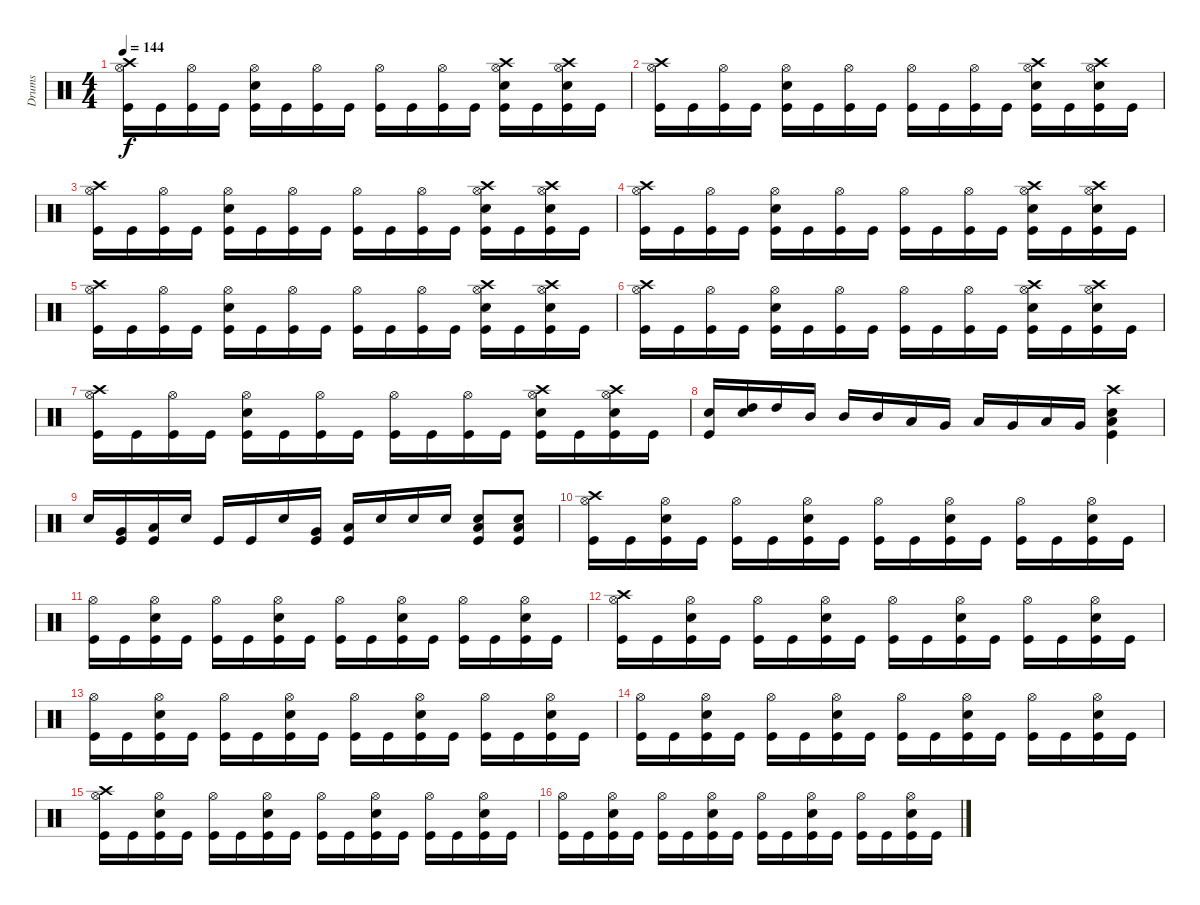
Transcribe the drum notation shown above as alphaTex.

\track ("Drums" "Drums") {instrument percussion}
\staff {score}
\articulation defaults
\ts (4 4)
\tempo 144
\clef neutral
\ks c
("Crash high (hit)" "Hi-Hat (open)" "Kick (hit)").16{dy f} "Kick (hit)".16 ("Kick (hit)" "Hi-Hat (open)").16 "Kick (hit)".16 ("Electric Snare (hit)" "Kick (hit)" "Hi-Hat (open)").16 "Kick (hit)".16 ("Kick (hit)" "Hi-Hat (open)").16 "Kick (hit)".16 ("Hi-Hat (open)" "Kick (hit)").16 "Kick (hit)".16 ("Kick (hit)" "Hi-Hat (open)").16 "Kick (hit)".16 ("Crash high (hit)" "Electric Snare (hit)" "Kick (hit)" "Hi-Hat (open)").16 "Kick (hit)".16 ("Crash high (hit)" "Electric Snare (hit)" "Kick (hit)" "Hi-Hat (open)").16 "Kick (hit)".16 |
("Crash high (hit)" "Hi-Hat (open)" "Kick (hit)").16 "Kick (hit)".16 ("Kick (hit)" "Hi-Hat (open)").16 "Kick (hit)".16 ("Electric Snare (hit)" "Kick (hit)" "Hi-Hat (open)").16 "Kick (hit)".16 ("Kick (hit)" "Hi-Hat (open)").16 "Kick (hit)".16 ("Hi-Hat (open)" "Kick (hit)").16 "Kick (hit)".16 ("Kick (hit)" "Hi-Hat (open)").16 "Kick (hit)".16 ("Crash high (hit)" "Electric Snare (hit)" "Kick (hit)" "Hi-Hat (open)").16 "Kick (hit)".16 ("Crash high (hit)" "Electric Snare (hit)" "Kick (hit)" "Hi-Hat (open)").16 "Kick (hit)".16 |
("Crash high (hit)" "Hi-Hat (open)" "Kick (hit)").16 "Kick (hit)".16 ("Kick (hit)" "Hi-Hat (open)").16 "Kick (hit)".16 ("Electric Snare (hit)" "Kick (hit)" "Hi-Hat (open)").16 "Kick (hit)".16 ("Kick (hit)" "Hi-Hat (open)").16 "Kick (hit)".16 ("Hi-Hat (open)" "Kick (hit)").16 "Kick (hit)".16 ("Kick (hit)" "Hi-Hat (open)").16 "Kick (hit)".16 ("Crash high (hit)" "Electric Snare (hit)" "Kick (hit)" "Hi-Hat (open)").16 "Kick (hit)".16 ("Crash high (hit)" "Electric Snare (hit)" "Kick (hit)" "Hi-Hat (open)").16 "Kick (hit)".16 |
("Crash high (hit)" "Hi-Hat (open)" "Kick (hit)").16 "Kick (hit)".16 ("Kick (hit)" "Hi-Hat (open)").16 "Kick (hit)".16 ("Electric Snare (hit)" "Kick (hit)" "Hi-Hat (open)").16 "Kick (hit)".16 ("Kick (hit)" "Hi-Hat (open)").16 "Kick (hit)".16 ("Hi-Hat (open)" "Kick (hit)").16 "Kick (hit)".16 ("Kick (hit)" "Hi-Hat (open)").16 "Kick (hit)".16 ("Crash high (hit)" "Electric Snare (hit)" "Kick (hit)" "Hi-Hat (open)").16 "Kick (hit)".16 ("Crash high (hit)" "Electric Snare (hit)" "Kick (hit)" "Hi-Hat (open)").16 "Kick (hit)".16 |
("Crash high (hit)" "Hi-Hat (open)" "Kick (hit)").16 "Kick (hit)".16 ("Kick (hit)" "Hi-Hat (open)").16 "Kick (hit)".16 ("Electric Snare (hit)" "Kick (hit)" "Hi-Hat (open)").16 "Kick (hit)".16 ("Kick (hit)" "Hi-Hat (open)").16 "Kick (hit)".16 ("Hi-Hat (open)" "Kick (hit)").16 "Kick (hit)".16 ("Kick (hit)" "Hi-Hat (open)").16 "Kick (hit)".16 ("Crash high (hit)" "Electric Snare (hit)" "Kick (hit)" "Hi-Hat (open)").16 "Kick (hit)".16 ("Crash high (hit)" "Electric Snare (hit)" "Kick (hit)" "Hi-Hat (open)").16 "Kick (hit)".16 |
("Crash high (hit)" "Hi-Hat (open)" "Kick (hit)").16 "Kick (hit)".16 ("Kick (hit)" "Hi-Hat (open)").16 "Kick (hit)".16 ("Electric Snare (hit)" "Kick (hit)" "Hi-Hat (open)").16 "Kick (hit)".16 ("Kick (hit)" "Hi-Hat (open)").16 "Kick (hit)".16 ("Hi-Hat (open)" "Kick (hit)").16 "Kick (hit)".16 ("Kick (hit)" "Hi-Hat (open)").16 "Kick (hit)".16 ("Crash high (hit)" "Electric Snare (hit)" "Kick (hit)" "Hi-Hat (open)").16 "Kick (hit)".16 ("Crash high (hit)" "Electric Snare (hit)" "Kick (hit)" "Hi-Hat (open)").16 "Kick (hit)".16 |
("Crash high (hit)" "Hi-Hat (open)" "Kick (hit)").16 "Kick (hit)".16 ("Kick (hit)" "Hi-Hat (open)").16 "Kick (hit)".16 ("Electric Snare (hit)" "Kick (hit)" "Hi-Hat (open)").16 "Kick (hit)".16 ("Kick (hit)" "Hi-Hat (open)").16 "Kick (hit)".16 ("Hi-Hat (open)" "Kick (hit)").16 "Kick (hit)".16 ("Kick (hit)" "Hi-Hat (open)").16 "Kick (hit)".16 ("Crash high (hit)" "Electric Snare (hit)" "Kick (hit)" "Hi-Hat (open)").16 "Kick (hit)".16 ("Crash high (hit)" "Electric Snare (hit)" "Kick (hit)" "Hi-Hat (open)").16 "Kick (hit)".16 |
("Kick (hit)" "Snare (hit) 2").16 ("High Tom (hit)" "Snare (hit) 2").16 "High Tom (hit)".16 "Mid Tom (hit)".16 "Mid Tom (hit)".16 "Mid Tom (hit)".16 "Low Tom (hit)".16 "Very Low Tom (hit)".16 "Low Floor Tom (hit)".16 "Very Low Tom (hit)".16 "Low Tom (hit)".16 "Very Low Tom (hit)".16 ("Crash high (hit)" "Low Floor Tom (hit)" "Snare (hit) 2" "Kick (hit)").4 |
"Snare (hit) 2".16 ("Very Low Tom (hit)" "Kick (hit)").16 ("Low Floor Tom (hit)" "Kick (hit)").16 "Snare (hit) 2".16 "Kick (hit)".16 "Kick (hit)".16 "Snare (hit) 2".16 ("Very Low Tom (hit)" "Kick (hit)").16 ("Low Floor Tom (hit)" "Kick (hit)").16 "Snare (hit) 2".16 "Snare (hit) 2".16 "Snare (hit) 2".16 ("Kick (hit)" "Low Floor Tom (hit)" "Snare (hit) 2").8 ("Kick (hit)" "Low Floor Tom (hit)" "Snare (hit) 2").8 |
("Hi-Hat (open)" "Crash high (hit)" "Kick (hit)").16 "Kick (hit)".16 ("Kick (hit)" "Hi-Hat (open)" "Electric Snare (hit)").16 "Kick (hit)".16 ("Kick (hit)" "Hi-Hat (open)").16 "Kick (hit)".16 ("Kick (hit)" "Hi-Hat (open)" "Electric Snare (hit)").16 "Kick (hit)".16 ("Hi-Hat (open)" "Kick (hit)").16 "Kick (hit)".16 ("Kick (hit)" "Hi-Hat (open)" "Electric Snare (hit)").16 "Kick (hit)".16 ("Kick (hit)" "Hi-Hat (open)").16 "Kick (hit)".16 ("Kick (hit)" "Hi-Hat (open)" "Electric Snare (hit)").16 "Kick (hit)".16 |
("Hi-Hat (open)" "Kick (hit)").16 "Kick (hit)".16 ("Kick (hit)" "Hi-Hat (open)" "Electric Snare (hit)").16 "Kick (hit)".16 ("Kick (hit)" "Hi-Hat (open)").16 "Kick (hit)".16 ("Kick (hit)" "Hi-Hat (open)" "Electric Snare (hit)").16 "Kick (hit)".16 ("Hi-Hat (open)" "Kick (hit)").16 "Kick (hit)".16 ("Kick (hit)" "Hi-Hat (open)" "Electric Snare (hit)").16 "Kick (hit)".16 ("Kick (hit)" "Hi-Hat (open)").16 "Kick (hit)".16 ("Kick (hit)" "Hi-Hat (open)" "Electric Snare (hit)").16 "Kick (hit)".16 |
("Hi-Hat (open)" "Crash high (hit)" "Kick (hit)").16 "Kick (hit)".16 ("Kick (hit)" "Hi-Hat (open)" "Electric Snare (hit)").16 "Kick (hit)".16 ("Kick (hit)" "Hi-Hat (open)").16 "Kick (hit)".16 ("Kick (hit)" "Hi-Hat (open)" "Electric Snare (hit)").16 "Kick (hit)".16 ("Hi-Hat (open)" "Kick (hit)").16 "Kick (hit)".16 ("Kick (hit)" "Hi-Hat (open)" "Electric Snare (hit)").16 "Kick (hit)".16 ("Kick (hit)" "Hi-Hat (open)").16 "Kick (hit)".16 ("Kick (hit)" "Hi-Hat (open)" "Electric Snare (hit)").16 "Kick (hit)".16 |
("Hi-Hat (open)" "Kick (hit)").16 "Kick (hit)".16 ("Kick (hit)" "Hi-Hat (open)" "Electric Snare (hit)").16 "Kick (hit)".16 ("Kick (hit)" "Hi-Hat (open)").16 "Kick (hit)".16 ("Kick (hit)" "Hi-Hat (open)" "Electric Snare (hit)").16 "Kick (hit)".16 ("Hi-Hat (open)" "Kick (hit)").16 "Kick (hit)".16 ("Kick (hit)" "Hi-Hat (open)" "Electric Snare (hit)").16 "Kick (hit)".16 ("Kick (hit)" "Hi-Hat (open)").16 "Kick (hit)".16 ("Kick (hit)" "Hi-Hat (open)" "Electric Snare (hit)").16 "Kick (hit)".16 |
("Hi-Hat (open)" "Kick (hit)").16 "Kick (hit)".16 ("Kick (hit)" "Hi-Hat (open)" "Electric Snare (hit)").16 "Kick (hit)".16 ("Kick (hit)" "Hi-Hat (open)").16 "Kick (hit)".16 ("Kick (hit)" "Hi-Hat (open)" "Electric Snare (hit)").16 "Kick (hit)".16 ("Hi-Hat (open)" "Kick (hit)").16 "Kick (hit)".16 ("Kick (hit)" "Hi-Hat (open)" "Electric Snare (hit)").16 "Kick (hit)".16 ("Kick (hit)" "Hi-Hat (open)").16 "Kick (hit)".16 ("Kick (hit)" "Hi-Hat (open)" "Electric Snare (hit)").16 "Kick (hit)".16 |
("Hi-Hat (open)" "Crash high (hit)" "Kick (hit)").16 "Kick (hit)".16 ("Kick (hit)" "Hi-Hat (open)" "Electric Snare (hit)").16 "Kick (hit)".16 ("Kick (hit)" "Hi-Hat (open)").16 "Kick (hit)".16 ("Kick (hit)" "Hi-Hat (open)" "Electric Snare (hit)").16 "Kick (hit)".16 ("Hi-Hat (open)" "Kick (hit)").16 "Kick (hit)".16 ("Kick (hit)" "Hi-Hat (open)" "Electric Snare (hit)").16 "Kick (hit)".16 ("Kick (hit)" "Hi-Hat (open)").16 "Kick (hit)".16 ("Kick (hit)" "Hi-Hat (open)" "Electric Snare (hit)").16 "Kick (hit)".16 |
("Hi-Hat (open)" "Kick (hit)").16 "Kick (hit)".16 ("Kick (hit)" "Hi-Hat (open)" "Electric Snare (hit)").16 "Kick (hit)".16 ("Kick (hit)" "Hi-Hat (open)").16 "Kick (hit)".16 ("Kick (hit)" "Hi-Hat (open)" "Electric Snare (hit)").16 "Kick (hit)".16 ("Hi-Hat (open)" "Kick (hit)").16 "Kick (hit)".16 ("Kick (hit)" "Hi-Hat (open)" "Electric Snare (hit)").16 "Kick (hit)".16 ("Kick (hit)" "Hi-Hat (open)").16 "Kick (hit)".16 ("Kick (hit)" "Hi-Hat (open)" "Electric Snare (hit)").16 "Kick (hit)".16
